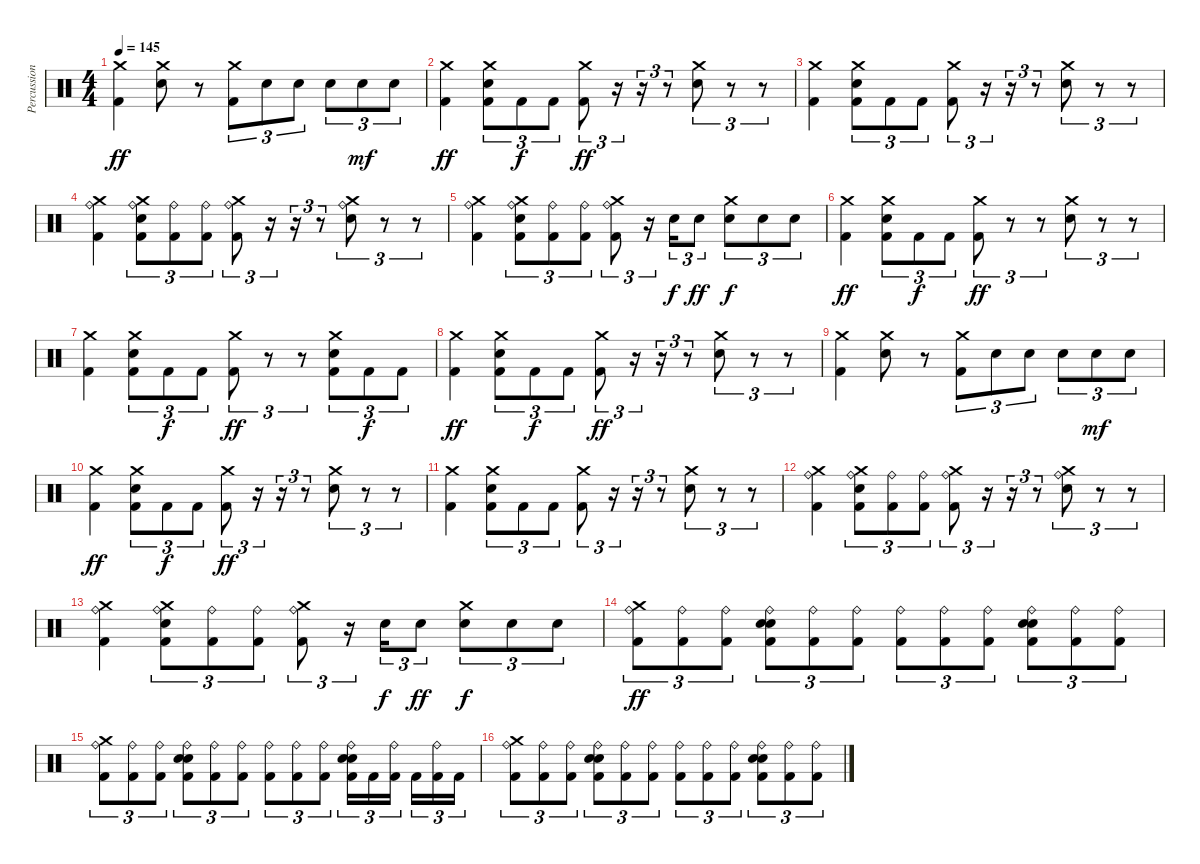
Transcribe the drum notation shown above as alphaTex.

\track ("Percussion" "Percussion") {instrument percussion}
\staff {score}
\articulation defaults
\ts (4 4)
\tempo 145
\clef neutral
\ks c
("Crash medium (hit)" "Kick (hit) 2").4{dy ff} ("Electric Snare (hit)" "Crash medium (hit)").8 r.8 ("Crash medium (hit)" "Kick (hit) 2").8{tu (3 2)} "Electric Snare (hit)".8{tu (3 2)} "Electric Snare (hit)".8{tu (3 2)} "Electric Snare (hit)".8{tu (3 2)} "Electric Snare (hit)".8{tu (3 2) dy mf} "Electric Snare (hit)".8{tu (3 2)} |
("Crash medium (hit)" "Kick (hit) 2").4{dy ff} ("Electric Snare (hit)" "Crash medium (hit)" "Kick (hit) 2").8{tu (3 2)} "Kick (hit) 2".8{tu (3 2) dy f} "Kick (hit) 2".8{tu (3 2)} ("Crash medium (hit)" "Kick (hit) 2").8{tu (3 2) dy ff} r.16{tu (3 2)} r.16{tu (3 2)} r.8{tu (3 2)} ("Electric Snare (hit)" "Crash medium (hit)").8{tu (3 2)} r.8{tu (3 2)} r.8{tu (3 2)} |
("Crash medium (hit)" "Kick (hit) 2").4 ("Electric Snare (hit)" "Crash medium (hit)" "Kick (hit) 2").8{tu (3 2)} "Kick (hit) 2".8{tu (3 2)} "Kick (hit) 2".8{tu (3 2)} ("Crash medium (hit)" "Kick (hit) 2").8{tu (3 2)} r.16{tu (3 2)} r.16{tu (3 2)} r.8{tu (3 2)} ("Electric Snare (hit)" "Crash medium (hit)").8{tu (3 2)} r.8{tu (3 2)} r.8{tu (3 2)} |
("Ride (bell)" "Crash medium (hit)" "Kick (hit) 2").4 ("Ride (bell)" "Electric Snare (hit)" "Crash medium (hit)" "Kick (hit) 2").8{tu (3 2)} ("Ride (bell)" "Kick (hit) 2").8{tu (3 2)} ("Ride (bell)" "Kick (hit) 2").8{tu (3 2)} ("Ride (bell)" "Crash medium (hit)" "Kick (hit) 2").8{tu (3 2)} r.16{tu (3 2)} r.16{tu (3 2)} r.8{tu (3 2)} ("Ride (bell)" "Electric Snare (hit)" "Crash medium (hit)").8{tu (3 2)} r.8{tu (3 2)} r.8{tu (3 2)} |
("Ride (bell)" "Crash medium (hit)" "Kick (hit) 2").4 ("Ride (bell)" "Electric Snare (hit)" "Crash medium (hit)" "Kick (hit) 2").8{tu (3 2)} ("Ride (bell)" "Kick (hit) 2").8{tu (3 2)} ("Ride (bell)" "Kick (hit) 2").8{tu (3 2)} ("Ride (bell)" "Crash medium (hit)" "Kick (hit) 2").8{tu (3 2)} r.16{tu (3 2)} "Electric Snare (hit)".16{tu (3 2) dy f} "Electric Snare (hit)".8{tu (3 2) dy ff} ("Electric Snare (hit)" "Crash medium (hit)").8{tu (3 2) dy f} "Electric Snare (hit)".8{tu (3 2)} "Electric Snare (hit)".8{tu (3 2)} |
("Crash medium (hit)" "Kick (hit) 2").4{dy ff} ("Electric Snare (hit)" "Crash medium (hit)" "Kick (hit) 2").8{tu (3 2)} "Kick (hit) 2".8{tu (3 2) dy f} "Kick (hit) 2".8{tu (3 2)} ("Crash medium (hit)" "Kick (hit) 2").8{tu (3 2) dy ff} r.8{tu (3 2)} r.8{tu (3 2)} ("Electric Snare (hit)" "Crash medium (hit)").8{tu (3 2)} r.8{tu (3 2)} r.8{tu (3 2)} |
("Crash medium (hit)" "Kick (hit) 2").4 ("Electric Snare (hit)" "Crash medium (hit)" "Kick (hit) 2").8{tu (3 2)} "Kick (hit) 2".8{tu (3 2) dy f} "Kick (hit) 2".8{tu (3 2)} ("Crash medium (hit)" "Kick (hit) 2").8{tu (3 2) dy ff} r.8{tu (3 2)} r.8{tu (3 2)} ("Electric Snare (hit)" "Crash medium (hit)" "Kick (hit) 2").8{tu (3 2)} "Kick (hit) 2".8{tu (3 2) dy f} "Kick (hit) 2".8{tu (3 2)} |
("Crash medium (hit)" "Kick (hit) 2").4{dy ff} ("Electric Snare (hit)" "Crash medium (hit)" "Kick (hit) 2").8{tu (3 2)} "Kick (hit) 2".8{tu (3 2) dy f} "Kick (hit) 2".8{tu (3 2)} ("Crash medium (hit)" "Kick (hit) 2").8{tu (3 2) dy ff} r.16{tu (3 2)} r.16{tu (3 2)} r.8{tu (3 2)} ("Electric Snare (hit)" "Crash medium (hit)").8{tu (3 2)} r.8{tu (3 2)} r.8{tu (3 2)} |
("Crash medium (hit)" "Kick (hit) 2").4 ("Electric Snare (hit)" "Crash medium (hit)").8 r.8 ("Crash medium (hit)" "Kick (hit) 2").8{tu (3 2)} "Electric Snare (hit)".8{tu (3 2)} "Electric Snare (hit)".8{tu (3 2)} "Electric Snare (hit)".8{tu (3 2)} "Electric Snare (hit)".8{tu (3 2) dy mf} "Electric Snare (hit)".8{tu (3 2)} |
("Crash medium (hit)" "Kick (hit) 2").4{dy ff} ("Electric Snare (hit)" "Crash medium (hit)" "Kick (hit) 2").8{tu (3 2)} "Kick (hit) 2".8{tu (3 2) dy f} "Kick (hit) 2".8{tu (3 2)} ("Crash medium (hit)" "Kick (hit) 2").8{tu (3 2) dy ff} r.16{tu (3 2)} r.16{tu (3 2)} r.8{tu (3 2)} ("Electric Snare (hit)" "Crash medium (hit)").8{tu (3 2)} r.8{tu (3 2)} r.8{tu (3 2)} |
("Crash medium (hit)" "Kick (hit) 2").4 ("Electric Snare (hit)" "Crash medium (hit)" "Kick (hit) 2").8{tu (3 2)} "Kick (hit) 2".8{tu (3 2)} "Kick (hit) 2".8{tu (3 2)} ("Crash medium (hit)" "Kick (hit) 2").8{tu (3 2)} r.16{tu (3 2)} r.16{tu (3 2)} r.8{tu (3 2)} ("Electric Snare (hit)" "Crash medium (hit)").8{tu (3 2)} r.8{tu (3 2)} r.8{tu (3 2)} |
("Ride (bell)" "Crash medium (hit)" "Kick (hit) 2").4 ("Ride (bell)" "Electric Snare (hit)" "Crash medium (hit)" "Kick (hit) 2").8{tu (3 2)} ("Ride (bell)" "Kick (hit) 2").8{tu (3 2)} ("Ride (bell)" "Kick (hit) 2").8{tu (3 2)} ("Ride (bell)" "Crash medium (hit)" "Kick (hit) 2").8{tu (3 2)} r.16{tu (3 2)} r.16{tu (3 2)} r.8{tu (3 2)} ("Ride (bell)" "Electric Snare (hit)" "Crash medium (hit)").8{tu (3 2)} r.8{tu (3 2)} r.8{tu (3 2)} |
("Ride (bell)" "Crash medium (hit)" "Kick (hit) 2").4 ("Ride (bell)" "Electric Snare (hit)" "Crash medium (hit)" "Kick (hit) 2").8{tu (3 2)} ("Ride (bell)" "Kick (hit) 2").8{tu (3 2)} ("Ride (bell)" "Kick (hit) 2").8{tu (3 2)} ("Ride (bell)" "Crash medium (hit)" "Kick (hit) 2").8{tu (3 2)} r.16{tu (3 2)} "Electric Snare (hit)".16{tu (3 2) dy f} "Electric Snare (hit)".8{tu (3 2) dy ff} ("Electric Snare (hit)" "Crash medium (hit)").8{tu (3 2) dy f} "Electric Snare (hit)".8{tu (3 2)} "Electric Snare (hit)".8{tu (3 2)} |
("Ride (bell)" "Crash medium (hit)" "Kick (hit) 2").8{tu (3 2) dy ff} ("Ride (bell)" "Kick (hit) 2").8{tu (3 2)} ("Ride (bell)" "Kick (hit) 2").8{tu (3 2)} ("Ride (bell)" "Snare (hit) 2" "Electric Snare (hit)" "Kick (hit) 2").8{tu (3 2)} ("Ride (bell)" "Kick (hit) 2").8{tu (3 2)} ("Ride (bell)" "Kick (hit) 2").8{tu (3 2)} ("Ride (bell)" "Kick (hit) 2").8{tu (3 2)} ("Ride (bell)" "Kick (hit) 2").8{tu (3 2)} ("Ride (bell)" "Kick (hit) 2").8{tu (3 2)} ("Ride (bell)" "Snare (hit) 2" "Electric Snare (hit)" "Kick (hit) 2").8{tu (3 2)} ("Ride (bell)" "Kick (hit) 2").8{tu (3 2)} ("Ride (bell)" "Kick (hit) 2").8{tu (3 2)} |
("Ride (bell)" "Crash medium (hit)" "Kick (hit) 2").8{tu (3 2)} ("Ride (bell)" "Kick (hit) 2").8{tu (3 2)} ("Ride (bell)" "Kick (hit) 2").8{tu (3 2)} ("Ride (bell)" "Snare (hit) 2" "Electric Snare (hit)" "Kick (hit) 2").8{tu (3 2)} ("Ride (bell)" "Kick (hit) 2").8{tu (3 2)} ("Ride (bell)" "Kick (hit) 2").8{tu (3 2)} ("Ride (bell)" "Kick (hit) 2").8{tu (3 2)} ("Ride (bell)" "Kick (hit) 2").8{tu (3 2)} ("Ride (bell)" "Kick (hit) 2").8{tu (3 2)} ("Ride (bell)" "Snare (hit) 2" "Electric Snare (hit)" "Kick (hit) 2").16{tu (3 2)} "Kick (hit) 2".16{tu (3 2)} ("Ride (bell)" "Kick (hit) 2").16{tu (3 2) beam splitsecondary} "Kick (hit) 2".16{tu (3 2)} ("Ride (bell)" "Kick (hit) 2").16{tu (3 2)} "Kick (hit) 2".16{tu (3 2)} |
("Ride (bell)" "Crash medium (hit)" "Kick (hit) 2").8{tu (3 2)} ("Ride (bell)" "Kick (hit) 2").8{tu (3 2)} ("Ride (bell)" "Kick (hit) 2").8{tu (3 2)} ("Ride (bell)" "Snare (hit) 2" "Electric Snare (hit)" "Kick (hit) 2").8{tu (3 2)} ("Ride (bell)" "Kick (hit) 2").8{tu (3 2)} ("Ride (bell)" "Kick (hit) 2").8{tu (3 2)} ("Ride (bell)" "Kick (hit) 2").8{tu (3 2)} ("Ride (bell)" "Kick (hit) 2").8{tu (3 2)} ("Ride (bell)" "Kick (hit) 2").8{tu (3 2)} ("Ride (bell)" "Snare (hit) 2" "Electric Snare (hit)" "Kick (hit) 2").8{tu (3 2)} ("Ride (bell)" "Kick (hit) 2").8{tu (3 2)} ("Ride (bell)" "Kick (hit) 2").8{tu (3 2)}
